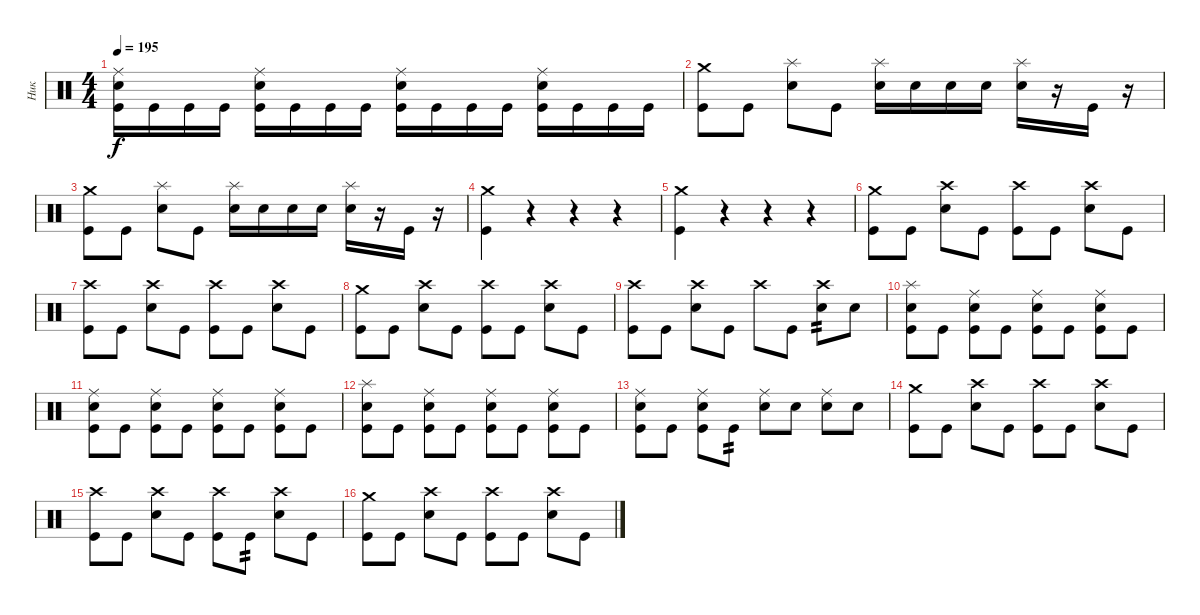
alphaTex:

\track ("Ник" "Ник") {instrument percussion}
\staff {score}
\articulation defaults
\ts (4 4)
\tempo 195
\clef neutral
\ks c
("Ride (middle)" "Snare (hit) 2" "Kick (hit)").16{dy f} "Kick (hit)".16 "Kick (hit)".16 "Kick (hit)".16 ("Ride (middle)" "Snare (hit) 2" "Kick (hit)").16 "Kick (hit)".16 "Kick (hit)".16 "Kick (hit)".16 ("Ride (middle)" "Snare (hit) 2" "Kick (hit)").16 "Kick (hit)".16 "Kick (hit)".16 "Kick (hit)".16 ("Ride (middle)" "Snare (hit) 2" "Kick (hit)").16 "Kick (hit)".16 "Kick (hit)".16 "Kick (hit)".16 |
("Crash medium (hit)" "Kick (hit)").8 "Kick (hit)".8 ("Splash (hit)" "Snare (hit) 2").8 "Kick (hit)".8 ("Splash (hit)" "Snare (hit) 2").16 "Snare (hit) 2".16 "Snare (hit) 2".16 "Snare (hit) 2".16 ("Splash (hit)" "Snare (hit) 2").16 r.16 "Kick (hit)".16 r.16 |
("Crash medium (hit)" "Kick (hit)").8 "Kick (hit)".8 ("Splash (hit)" "Snare (hit) 2").8 "Kick (hit)".8 ("Splash (hit)" "Snare (hit) 2").16 "Snare (hit) 2".16 "Snare (hit) 2".16 "Snare (hit) 2".16 ("Splash (hit)" "Snare (hit) 2").16 r.16 "Kick (hit)".16 r.16 |
("Crash medium (hit)" "Kick (hit)").4 r.4 r.4 r.4 |
("Crash medium (hit)" "Kick (hit)").4 r.4 r.4 r.4 |
("Crash medium (hit)" "Kick (hit)").8 "Kick (hit)".8 ("Crash high (hit)" "Snare (hit) 2").8 "Kick (hit)".8 ("Crash high (hit)" "Kick (hit)").8 "Kick (hit)".8 ("Crash high (hit)" "Snare (hit) 2").8 "Kick (hit)".8 |
("Crash high (hit)" "Kick (hit)").8 "Kick (hit)".8 ("Crash high (hit)" "Snare (hit) 2").8 "Kick (hit)".8 ("Crash high (hit)" "Kick (hit)").8 "Kick (hit)".8 ("Crash high (hit)" "Snare (hit) 2").8 "Kick (hit)".8 |
("Crash medium (hit)" "Kick (hit)").8 "Kick (hit)".8 ("Crash high (hit)" "Snare (hit) 2").8 "Kick (hit)".8 ("Crash high (hit)" "Kick (hit)").8 "Kick (hit)".8 ("Crash high (hit)" "Snare (hit) 2").8 "Kick (hit)".8 |
("Crash high (hit)" "Kick (hit)").8 "Kick (hit)".8 ("Crash high (hit)" "Snare (hit) 2").8 "Kick (hit)".8 "Crash high (hit)".8 "Kick (hit)".8 ("Crash high (hit)" "Snare (hit) 2").8{tp 2} "Snare (hit) 2".8 |
("Splash (hit)" "Snare (hit) 2" "Kick (hit)").8 "Kick (hit)".8 ("Ride (middle)" "Snare (hit) 2" "Kick (hit)").8 "Kick (hit)".8 ("Ride (middle)" "Snare (hit) 2" "Kick (hit)").8 "Kick (hit)".8 ("Ride (middle)" "Snare (hit) 2" "Kick (hit)").8 "Kick (hit)".8 |
("Ride (middle)" "Snare (hit) 2" "Kick (hit)").8 "Kick (hit)".8 ("Ride (middle)" "Snare (hit) 2" "Kick (hit)").8 "Kick (hit)".8 ("Ride (middle)" "Snare (hit) 2" "Kick (hit)").8 "Kick (hit)".8 ("Ride (middle)" "Snare (hit) 2" "Kick (hit)").8 "Kick (hit)".8 |
("Splash (hit)" "Snare (hit) 2" "Kick (hit)").8 "Kick (hit)".8 ("Ride (middle)" "Snare (hit) 2" "Kick (hit)").8 "Kick (hit)".8 ("Ride (middle)" "Snare (hit) 2" "Kick (hit)").8 "Kick (hit)".8 ("Ride (middle)" "Snare (hit) 2" "Kick (hit)").8 "Kick (hit)".8 |
("Ride (middle)" "Snare (hit) 2" "Kick (hit)").8 "Kick (hit)".8 ("Ride (middle)" "Snare (hit) 2" "Kick (hit)").8 "Kick (hit)".8{tp 2} ("Ride (middle)" "Snare (hit) 2").8 "Snare (hit) 2".8 ("Ride (middle)" "Snare (hit) 2").8 "Snare (hit) 2".8 |
("Crash medium (hit)" "Kick (hit)").8 "Kick (hit)".8 ("Crash high (hit)" "Snare (hit) 2").8 "Kick (hit)".8 ("Crash high (hit)" "Kick (hit)").8 "Kick (hit)".8 ("Crash high (hit)" "Snare (hit) 2").8 "Kick (hit)".8 |
("Crash high (hit)" "Kick (hit)").8 "Kick (hit)".8 ("Crash high (hit)" "Snare (hit) 2").8 "Kick (hit)".8 ("Crash high (hit)" "Kick (hit)").8 "Kick (hit)".8{tp 2} ("Crash high (hit)" "Snare (hit) 2").8 "Kick (hit)".8 |
("Crash medium (hit)" "Kick (hit)").8 "Kick (hit)".8 ("Crash high (hit)" "Snare (hit) 2").8 "Kick (hit)".8 ("Crash high (hit)" "Kick (hit)").8 "Kick (hit)".8 ("Crash high (hit)" "Snare (hit) 2").8 "Kick (hit)".8
